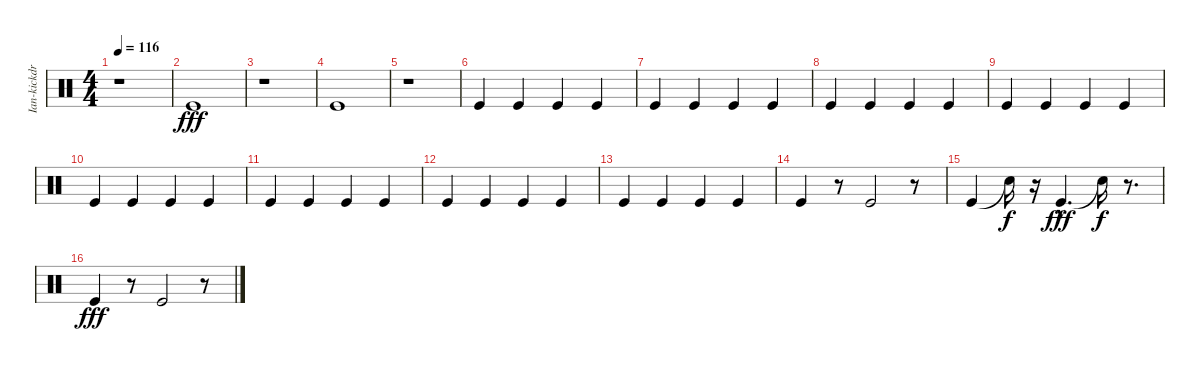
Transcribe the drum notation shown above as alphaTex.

\track ("Ian-kickdrum" "Ian-kickdr") {instrument percussion}
\staff {score}
\articulation defaults
\ts (4 4)
\tempo 116
\clef neutral
\ks c
r.1{dy fff} |
"Kick (hit)".1 |
r.1 |
"Kick (hit)".1 |
r.1 |
"Kick (hit)".4 "Kick (hit)".4 "Kick (hit)".4 "Kick (hit)".4 |
"Kick (hit)".4 "Kick (hit)".4 "Kick (hit)".4 "Kick (hit)".4 |
"Kick (hit)".4 "Kick (hit)".4 "Kick (hit)".4 "Kick (hit)".4 |
"Kick (hit)".4 "Kick (hit)".4 "Kick (hit)".4 "Kick (hit)".4 |
"Kick (hit)".4 "Kick (hit)".4 "Kick (hit)".4 "Kick (hit)".4 |
"Kick (hit)".4 "Kick (hit)".4 "Kick (hit)".4 "Kick (hit)".4 |
"Kick (hit)".4 "Kick (hit)".4 "Kick (hit)".4 "Kick (hit)".4 |
"Kick (hit)".4 "Kick (hit)".4 "Kick (hit)".4 "Kick (hit)".4 |
"Kick (hit)".4 r.8 "Kick (hit)".2 r.8 |
"Kick (hit)".4 "Snare (hit)"{t}.16{dy f} r.16 "Kick (hit)"{hac}.4{d dy fff} "Snare (hit)"{t}.16{dy f} r.8{d} |
"Kick (hit)".4{dy fff} r.8 "Kick (hit)".2 r.8
